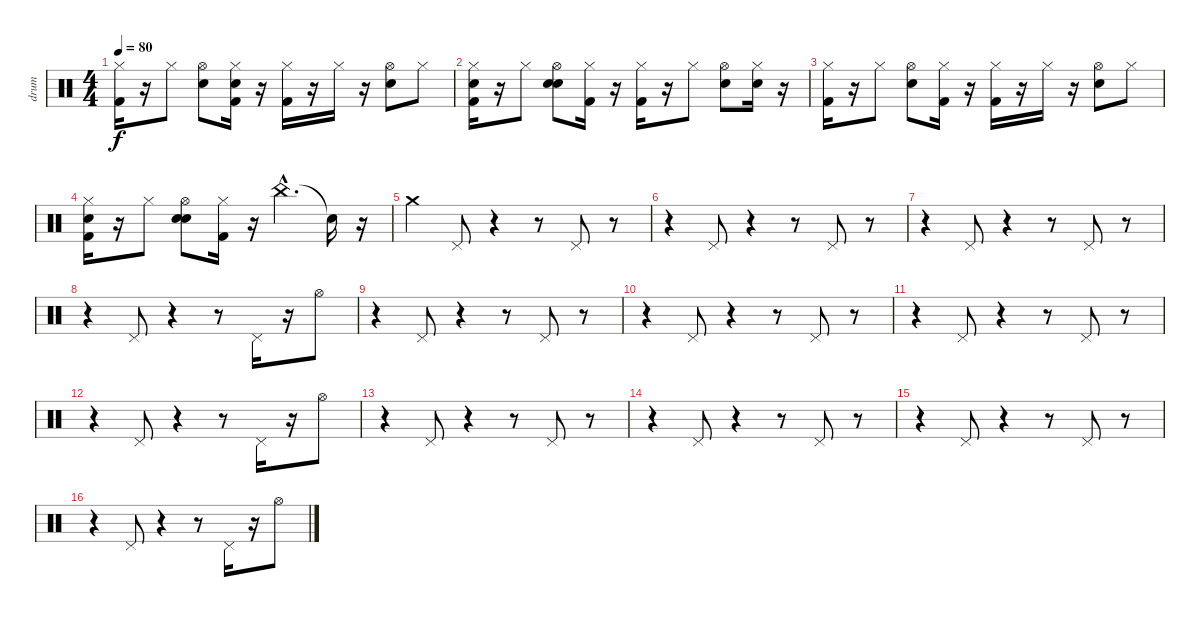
\track ("drum" "drum") {instrument percussion}
\staff {score}
\articulation defaults
\ts (4 4)
\tempo 80
\clef neutral
\ks c
("Hi-Hat (closed)" "Kick (hit) 2").16{dy f} r.16 "Hi-Hat (closed)".8 ("Hi-Hat (open)" "Snare (hit) 2").8 ("Snare (hit)" "Kick (hit) 2" "Hi-Hat (closed)").16 r.16 ("Kick (hit) 2" "Hi-Hat (closed)").16 r.16 "Hi-Hat (closed)".16 r.16 ("Hi-Hat (open)" "Snare (hit) 2").8 "Hi-Hat (closed)".8 |
("Snare (hit)" "Kick (hit) 2" "Hi-Hat (closed)").16 r.16 "Hi-Hat (closed)".8 ("Snare (hit)" "Hi-Hat (open)" "Snare (hit) 2").8 ("Kick (hit) 2" "Hi-Hat (closed)").16 r.16 ("Hi-Hat (closed)" "Kick (hit) 2").16 r.16 "Hi-Hat (closed)".8 ("Snare (hit) 2" "Hi-Hat (open)").8 ("Snare (hit)" "Hi-Hat (closed)").16 r.16 |
("Kick (hit) 2" "Hi-Hat (closed)").16 r.16 "Hi-Hat (closed)".8 ("Hi-Hat (open)" "Snare (hit) 2").8 ("Kick (hit) 2" "Hi-Hat (closed)").16 r.16 ("Kick (hit) 2" "Hi-Hat (closed)").16 r.16 "Hi-Hat (closed)".16 r.16 ("Snare (hit) 2" "Hi-Hat (open)").8 "Hi-Hat (closed)".8 |
("Snare (hit)" "Hi-Hat (closed)" "Kick (hit) 2").16 r.16 "Hi-Hat (closed)".8 ("Snare (hit)" "Hi-Hat (open)" "Snare (hit) 2").8 ("Kick (hit) 2" "Hi-Hat (closed)").16 r.16 "China (hit)"{hac}.4{d} "Snare (hit)"{t}.16 r.16 |
"Crash medium (hit)".4 "Pedal Hi-Hat (hit)".8 r.4 r.8 "Pedal Hi-Hat (hit)".8 r.8 |
r.4 "Pedal Hi-Hat (hit)".8 r.4 r.8 "Pedal Hi-Hat (hit)".8 r.8 |
r.4 "Pedal Hi-Hat (hit)".8 r.4 r.8 "Pedal Hi-Hat (hit)".8 r.8 |
r.4 "Pedal Hi-Hat (hit)".8 r.4 r.8 "Pedal Hi-Hat (hit)".16 r.16 "Hi-Hat (open)".8 |
r.4 "Pedal Hi-Hat (hit)".8 r.4 r.8 "Pedal Hi-Hat (hit)".8 r.8 |
r.4 "Pedal Hi-Hat (hit)".8 r.4 r.8 "Pedal Hi-Hat (hit)".8 r.8 |
r.4 "Pedal Hi-Hat (hit)".8 r.4 r.8 "Pedal Hi-Hat (hit)".8 r.8 |
r.4 "Pedal Hi-Hat (hit)".8 r.4 r.8 "Pedal Hi-Hat (hit)".16 r.16 "Hi-Hat (open)".8 |
r.4 "Pedal Hi-Hat (hit)".8 r.4 r.8 "Pedal Hi-Hat (hit)".8 r.8 |
r.4 "Pedal Hi-Hat (hit)".8 r.4 r.8 "Pedal Hi-Hat (hit)".8 r.8 |
r.4 "Pedal Hi-Hat (hit)".8 r.4 r.8 "Pedal Hi-Hat (hit)".8 r.8 |
r.4 "Pedal Hi-Hat (hit)".8 r.4 r.8 "Pedal Hi-Hat (hit)".16 r.16 "Hi-Hat (open)".8
